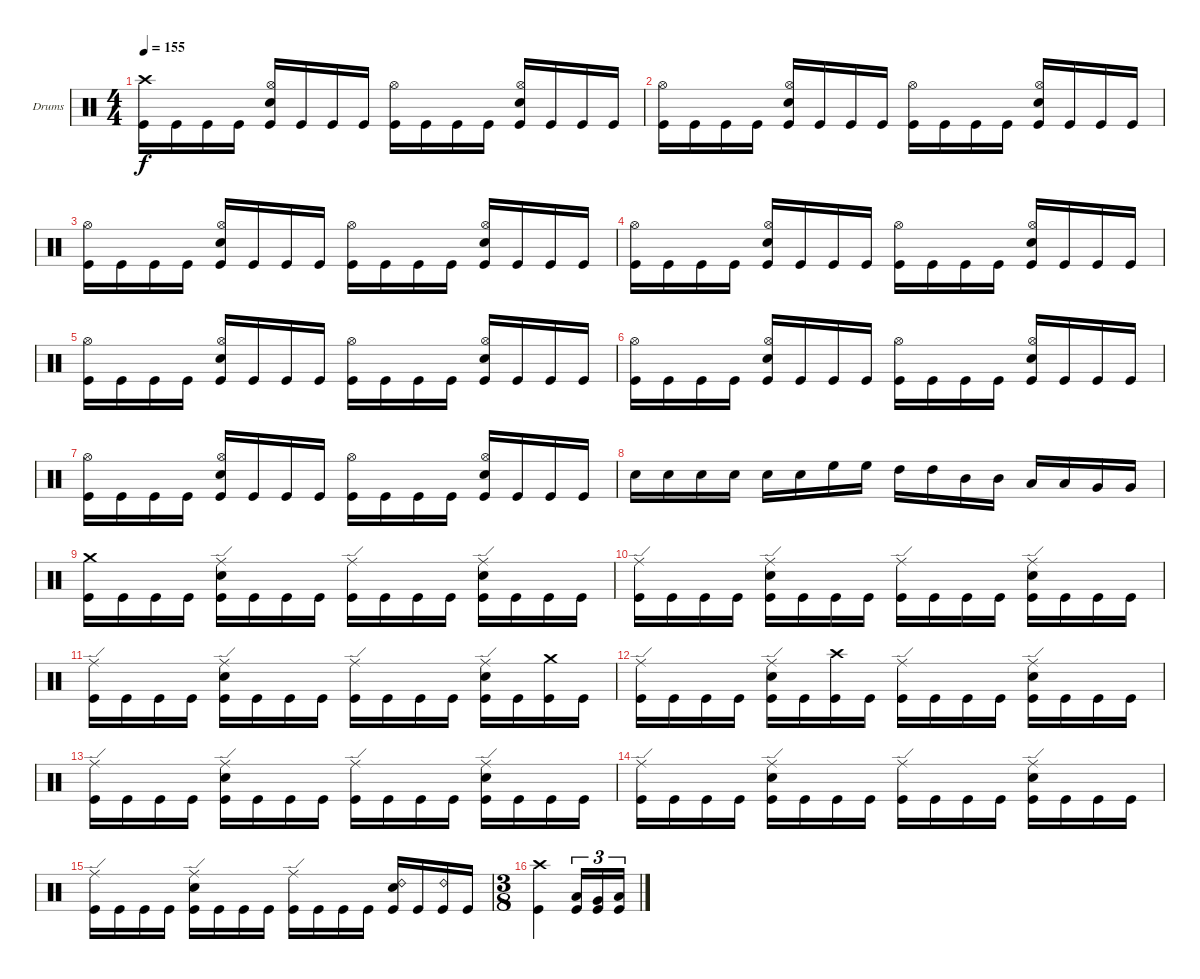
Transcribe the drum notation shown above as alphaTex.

\defaultSystemsLayout 4
\bracketExtendMode groupsimilarinstruments
\firstSystemTrackNameOrientation horizontal
\otherSystemsTrackNameOrientation horizontal
\track ("Drumkit" "Drums") {instrument percussion}
\staff {score}
\articulation defaults
\ts (4 4)
\tempo 155
\clef neutral
\scale
0.333333
\ks c
("Crash high (hit)" "Kick (hit)").16{dy f} "Kick (hit)".16 "Kick (hit)".16 "Kick (hit)".16 ("Hi-Hat (open)" "Snare (hit) 2" "Kick (hit)").16 "Kick (hit)".16 "Kick (hit)".16 "Kick (hit)".16 ("Hi-Hat (open)" "Kick (hit)").16 "Kick (hit)".16 "Kick (hit)".16 "Kick (hit)".16 ("Hi-Hat (open)" "Snare (hit) 2" "Kick (hit)").16 "Kick (hit)".16 "Kick (hit)".16 "Kick (hit)".16 |
\scale
0.333333 ("Hi-Hat (open)" "Kick (hit)").16 "Kick (hit)".16 "Kick (hit)".16 "Kick (hit)".16 ("Hi-Hat (open)" "Snare (hit) 2" "Kick (hit)").16 "Kick (hit)".16 "Kick (hit)".16 "Kick (hit)".16 ("Hi-Hat (open)" "Kick (hit)").16 "Kick (hit)".16 "Kick (hit)".16 "Kick (hit)".16 ("Hi-Hat (open)" "Snare (hit) 2" "Kick (hit)").16 "Kick (hit)".16 "Kick (hit)".16 "Kick (hit)".16 |
\scale
0.333333 ("Hi-Hat (open)" "Kick (hit)").16 "Kick (hit)".16 "Kick (hit)".16 "Kick (hit)".16 ("Hi-Hat (open)" "Snare (hit) 2" "Kick (hit)").16 "Kick (hit)".16 "Kick (hit)".16 "Kick (hit)".16 ("Hi-Hat (open)" "Kick (hit)").16 "Kick (hit)".16 "Kick (hit)".16 "Kick (hit)".16 ("Hi-Hat (open)" "Snare (hit) 2" "Kick (hit)").16 "Kick (hit)".16 "Kick (hit)".16 "Kick (hit)".16 |
\scale
0.333333 ("Hi-Hat (open)" "Kick (hit)").16 "Kick (hit)".16 "Kick (hit)".16 "Kick (hit)".16 ("Hi-Hat (open)" "Snare (hit) 2" "Kick (hit)").16 "Kick (hit)".16 "Kick (hit)".16 "Kick (hit)".16 ("Hi-Hat (open)" "Kick (hit)").16 "Kick (hit)".16 "Kick (hit)".16 "Kick (hit)".16 ("Hi-Hat (open)" "Snare (hit) 2" "Kick (hit)").16 "Kick (hit)".16 "Kick (hit)".16 "Kick (hit)".16 |
\scale
0.333333 ("Hi-Hat (open)" "Kick (hit)").16 "Kick (hit)".16 "Kick (hit)".16 "Kick (hit)".16 ("Hi-Hat (open)" "Snare (hit) 2" "Kick (hit)").16 "Kick (hit)".16 "Kick (hit)".16 "Kick (hit)".16 ("Hi-Hat (open)" "Kick (hit)").16 "Kick (hit)".16 "Kick (hit)".16 "Kick (hit)".16 ("Hi-Hat (open)" "Snare (hit) 2" "Kick (hit)").16 "Kick (hit)".16 "Kick (hit)".16 "Kick (hit)".16 |
\scale
0.333333 ("Hi-Hat (open)" "Kick (hit)").16 "Kick (hit)".16 "Kick (hit)".16 "Kick (hit)".16 ("Hi-Hat (open)" "Snare (hit) 2" "Kick (hit)").16 "Kick (hit)".16 "Kick (hit)".16 "Kick (hit)".16 ("Hi-Hat (open)" "Kick (hit)").16 "Kick (hit)".16 "Kick (hit)".16 "Kick (hit)".16 ("Hi-Hat (open)" "Snare (hit) 2" "Kick (hit)").16 "Kick (hit)".16 "Kick (hit)".16 "Kick (hit)".16 |
\scale
0.333333 ("Hi-Hat (open)" "Kick (hit)").16 "Kick (hit)".16 "Kick (hit)".16 "Kick (hit)".16 ("Hi-Hat (open)" "Snare (hit) 2" "Kick (hit)").16 "Kick (hit)".16 "Kick (hit)".16 "Kick (hit)".16 ("Hi-Hat (open)" "Kick (hit)").16 "Kick (hit)".16 "Kick (hit)".16 "Kick (hit)".16 ("Hi-Hat (open)" "Snare (hit) 2" "Kick (hit)").16 "Kick (hit)".16 "Kick (hit)".16 "Kick (hit)".16 |
\scale
0.333333 "Snare (hit) 2".16 "Snare (hit) 2".16 "Snare (hit) 2".16 "Snare (hit) 2".16 "Snare (hit) 2".16 "Snare (hit) 2".16 "High Floor Tom (hit)".16 "High Floor Tom (hit)".16 "High Tom (hit)".16 "High Tom (hit)".16 "Mid Tom (hit)".16 "Mid Tom (hit)".16 "Low Tom (hit)".16 "Low Tom (hit)".16 "Very Low Tom (hit)".16 "Very Low Tom (hit)".16 |
\scale
0.333333 ("Crash medium (hit)" "Kick (hit)").16 "Kick (hit)".16 "Kick (hit)".16 "Kick (hit)".16 ("Ride (edge)" "Snare (hit) 2" "Kick (hit)").16 "Kick (hit)".16 "Kick (hit)".16 "Kick (hit)".16 ("Ride (edge)" "Kick (hit)").16 "Kick (hit)".16 "Kick (hit)".16 "Kick (hit)".16 ("Ride (edge)" "Snare (hit) 2" "Kick (hit)").16 "Kick (hit)".16 "Kick (hit)".16 "Kick (hit)".16 |
\scale
0.333333 ("Ride (edge)" "Kick (hit)").16 "Kick (hit)".16 "Kick (hit)".16 "Kick (hit)".16 ("Ride (edge)" "Snare (hit) 2" "Kick (hit)").16 "Kick (hit)".16 "Kick (hit)".16 "Kick (hit)".16 ("Ride (edge)" "Kick (hit)").16 "Kick (hit)".16 "Kick (hit)".16 "Kick (hit)".16 ("Ride (edge)" "Snare (hit) 2" "Kick (hit)").16 "Kick (hit)".16 "Kick (hit)".16 "Kick (hit)".16 |
\scale
0.333333 ("Ride (edge)" "Kick (hit)").16 "Kick (hit)".16 "Kick (hit)".16 "Kick (hit)".16 ("Ride (edge)" "Snare (hit) 2" "Kick (hit)").16 "Kick (hit)".16 "Kick (hit)".16 "Kick (hit)".16 ("Ride (edge)" "Kick (hit)").16 "Kick (hit)".16 "Kick (hit)".16 "Kick (hit)".16 ("Ride (edge)" "Snare (hit) 2" "Kick (hit)").16 "Kick (hit)".16 ("Crash medium (hit)" "Kick (hit)").16 "Kick (hit)".16 |
\scale
0.333333 ("Ride (edge)" "Kick (hit)").16 "Kick (hit)".16 "Kick (hit)".16 "Kick (hit)".16 ("Ride (edge)" "Snare (hit) 2" "Kick (hit)").16 "Kick (hit)".16 ("Crash high (hit)" "Kick (hit)").16 "Kick (hit)".16 ("Ride (edge)" "Kick (hit)").16 "Kick (hit)".16 "Kick (hit)".16 "Kick (hit)".16 ("Ride (edge)" "Snare (hit) 2" "Kick (hit)").16 "Kick (hit)".16 "Kick (hit)".16 "Kick (hit)".16 |
\scale
0.333333 ("Ride (edge)" "Kick (hit)").16 "Kick (hit)".16 "Kick (hit)".16 "Kick (hit)".16 ("Ride (edge)" "Snare (hit) 2" "Kick (hit)").16 "Kick (hit)".16 "Kick (hit)".16 "Kick (hit)".16 ("Ride (edge)" "Kick (hit)").16 "Kick (hit)".16 "Kick (hit)".16 "Kick (hit)".16 ("Ride (edge)" "Snare (hit) 2" "Kick (hit)").16 "Kick (hit)".16 "Kick (hit)".16 "Kick (hit)".16 |
\scale
0.333333 ("Ride (edge)" "Kick (hit)").16 "Kick (hit)".16 "Kick (hit)".16 "Kick (hit)".16 ("Ride (edge)" "Snare (hit) 2" "Kick (hit)").16 "Kick (hit)".16 "Kick (hit)".16 "Kick (hit)".16 ("Ride (edge)" "Kick (hit)").16 "Kick (hit)".16 "Kick (hit)".16 "Kick (hit)".16 ("Ride (edge)" "Snare (hit) 2" "Kick (hit)").16 "Kick (hit)".16 "Kick (hit)".16 "Kick (hit)".16 |
\scale
0.333333 ("Ride (edge)" "Kick (hit)").16 "Kick (hit)".16 "Kick (hit)".16 "Kick (hit)".16 ("Ride (edge)" "Snare (hit) 2" "Kick (hit)").16 "Kick (hit)".16 "Kick (hit)".16 "Kick (hit)".16 ("Ride (edge)" "Kick (hit)").16 "Kick (hit)".16 "Kick (hit)".16 "Kick (hit)".16 ("Ride (bell) 2" "Snare (hit) 2" "Kick (hit)").16 "Kick (hit)".16 ("Ride (bell) 2" "Kick (hit)").16 "Kick (hit)".16 |
\ts (3 8)
\scale
0.333333 ("Crash high (hit)" "Kick (hit)").4 ("Low Tom (hit)" "Kick (hit)").16{tu (3 2)} ("Very Low Tom (hit)" "Kick (hit)").16{tu (3 2)} ("Low Tom (hit)" "Kick (hit)").16{tu (3 2)}
